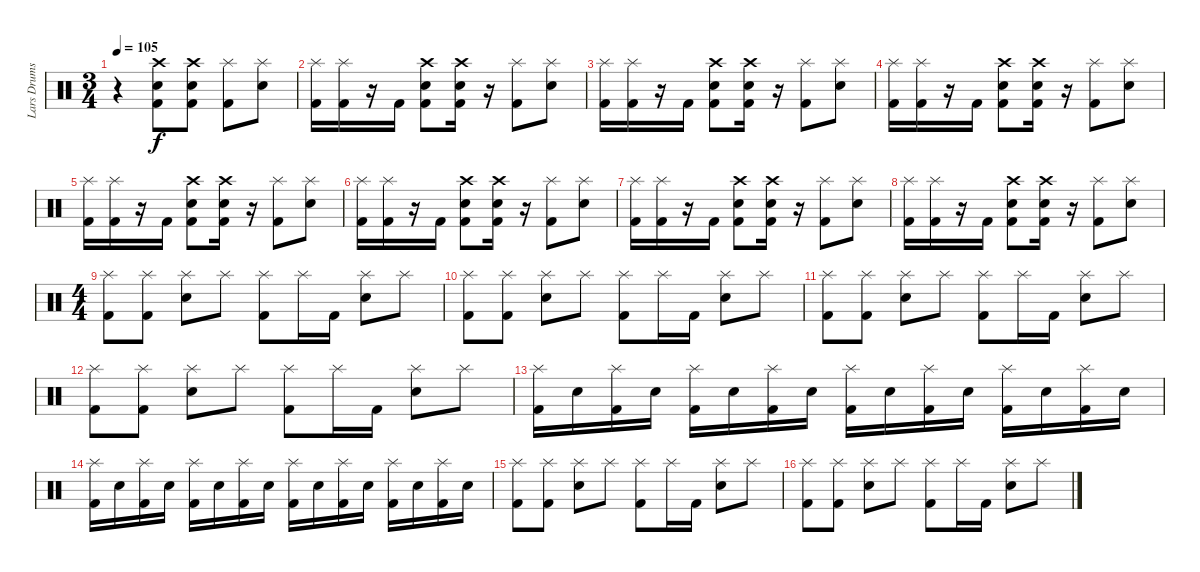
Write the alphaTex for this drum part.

\track ("Lars Drums" "Lars Drums") {instrument percussion}
\staff {score}
\articulation defaults
\ts (3 4)
\tempo 105
\clef neutral
\ks c
r.4{dy f} ("Crash high (hit)" "Snare (hit) 2" "Kick (hit) 2").8 ("Crash high (hit)" "Snare (hit) 2" "Kick (hit) 2").8 ("Splash (hit)" "Kick (hit) 2").8 ("Splash (hit)" "Snare (hit) 2").8 |
("Splash (hit)" "Kick (hit) 2").16 ("Splash (hit)" "Kick (hit) 2").16 r.16 "Kick (hit) 2".16 ("Crash high (hit)" "Snare (hit) 2" "Kick (hit) 2").8 ("Crash high (hit)" "Snare (hit) 2" "Kick (hit) 2").16 r.16 ("Splash (hit)" "Kick (hit) 2").8 ("Splash (hit)" "Snare (hit) 2").8 |
("Splash (hit)" "Kick (hit) 2").16 ("Splash (hit)" "Kick (hit) 2").16 r.16 "Kick (hit) 2".16 ("Crash high (hit)" "Snare (hit) 2" "Kick (hit) 2").8 ("Crash high (hit)" "Snare (hit) 2" "Kick (hit) 2").16 r.16 ("Splash (hit)" "Kick (hit) 2").8 ("Splash (hit)" "Snare (hit) 2").8 |
("Splash (hit)" "Kick (hit) 2").16 ("Splash (hit)" "Kick (hit) 2").16 r.16 "Kick (hit) 2".16 ("Crash high (hit)" "Snare (hit) 2" "Kick (hit) 2").8 ("Crash high (hit)" "Snare (hit) 2" "Kick (hit) 2").16 r.16 ("Splash (hit)" "Kick (hit) 2").8 ("Splash (hit)" "Snare (hit) 2").8 |
("Splash (hit)" "Kick (hit) 2").16 ("Splash (hit)" "Kick (hit) 2").16 r.16 "Kick (hit) 2".16 ("Crash high (hit)" "Snare (hit) 2" "Kick (hit) 2").8 ("Crash high (hit)" "Snare (hit) 2" "Kick (hit) 2").16 r.16 ("Splash (hit)" "Kick (hit) 2").8 ("Splash (hit)" "Snare (hit) 2").8 |
("Splash (hit)" "Kick (hit) 2").16 ("Splash (hit)" "Kick (hit) 2").16 r.16 "Kick (hit) 2".16 ("Crash high (hit)" "Snare (hit) 2" "Kick (hit) 2").8 ("Crash high (hit)" "Snare (hit) 2" "Kick (hit) 2").16 r.16 ("Splash (hit)" "Kick (hit) 2").8 ("Splash (hit)" "Snare (hit) 2").8 |
("Splash (hit)" "Kick (hit) 2").16 ("Splash (hit)" "Kick (hit) 2").16 r.16 "Kick (hit) 2".16 ("Crash high (hit)" "Snare (hit) 2" "Kick (hit) 2").8 ("Crash high (hit)" "Snare (hit) 2" "Kick (hit) 2").16 r.16 ("Splash (hit)" "Kick (hit) 2").8 ("Splash (hit)" "Snare (hit) 2").8 |
("Splash (hit)" "Kick (hit) 2").16 ("Splash (hit)" "Kick (hit) 2").16 r.16 "Kick (hit) 2".16 ("Crash high (hit)" "Snare (hit) 2" "Kick (hit) 2").8 ("Crash high (hit)" "Snare (hit) 2" "Kick (hit) 2").16 r.16 ("Splash (hit)" "Kick (hit) 2").8 ("Splash (hit)" "Snare (hit) 2").8 |
\ts (4 4)
("Splash (hit)" "Kick (hit) 2").8 ("Splash (hit)" "Kick (hit) 2").8 ("Splash (hit)" "Snare (hit) 2").8 "Splash (hit)".8 ("Splash (hit)" "Kick (hit) 2").8 "Splash (hit)".16 "Kick (hit) 2".16 ("Splash (hit)" "Snare (hit) 2").8 "Splash (hit)".8 |
("Splash (hit)" "Kick (hit) 2").8 ("Splash (hit)" "Kick (hit) 2").8 ("Splash (hit)" "Snare (hit) 2").8 "Splash (hit)".8 ("Splash (hit)" "Kick (hit) 2").8 "Splash (hit)".16 "Kick (hit) 2".16 ("Splash (hit)" "Snare (hit) 2").8 "Splash (hit)".8 |
("Splash (hit)" "Kick (hit) 2").8 ("Splash (hit)" "Kick (hit) 2").8 ("Splash (hit)" "Snare (hit) 2").8 "Splash (hit)".8 ("Splash (hit)" "Kick (hit) 2").8 "Splash (hit)".16 "Kick (hit) 2".16 ("Splash (hit)" "Snare (hit) 2").8 "Splash (hit)".8 |
("Splash (hit)" "Kick (hit) 2").8 ("Splash (hit)" "Kick (hit) 2").8 ("Splash (hit)" "Snare (hit) 2").8 "Splash (hit)".8 ("Splash (hit)" "Kick (hit) 2").8 "Splash (hit)".16 "Kick (hit) 2".16 ("Splash (hit)" "Snare (hit) 2").8 "Splash (hit)".8 |
("Splash (hit)" "Kick (hit) 2").16 "Snare (hit) 2".16 ("Splash (hit)" "Kick (hit) 2").16 "Snare (hit) 2".16 ("Splash (hit)" "Kick (hit) 2").16 "Snare (hit) 2".16 ("Splash (hit)" "Kick (hit) 2").16 "Snare (hit) 2".16 ("Splash (hit)" "Kick (hit) 2").16 "Snare (hit) 2".16 ("Splash (hit)" "Kick (hit) 2").16 "Snare (hit) 2".16 ("Splash (hit)" "Kick (hit) 2").16 "Snare (hit) 2".16 ("Splash (hit)" "Kick (hit) 2").16 "Snare (hit) 2".16 |
("Splash (hit)" "Kick (hit) 2").16 "Snare (hit) 2".16 ("Splash (hit)" "Kick (hit) 2").16 "Snare (hit) 2".16 ("Splash (hit)" "Kick (hit) 2").16 "Snare (hit) 2".16 ("Splash (hit)" "Kick (hit) 2").16 "Snare (hit) 2".16 ("Splash (hit)" "Kick (hit) 2").16 "Snare (hit) 2".16 ("Splash (hit)" "Kick (hit) 2").16 "Snare (hit) 2".16 ("Splash (hit)" "Kick (hit) 2").16 "Snare (hit) 2".16 ("Splash (hit)" "Kick (hit) 2").16 "Snare (hit) 2".16 |
("Splash (hit)" "Kick (hit) 2").8 ("Splash (hit)" "Kick (hit) 2").8 ("Splash (hit)" "Snare (hit) 2").8 "Splash (hit)".8 ("Splash (hit)" "Kick (hit) 2").8 "Splash (hit)".16 "Kick (hit) 2".16 ("Splash (hit)" "Snare (hit) 2").8 "Splash (hit)".8 |
("Splash (hit)" "Kick (hit) 2").8 ("Splash (hit)" "Kick (hit) 2").8 ("Splash (hit)" "Snare (hit) 2").8 "Splash (hit)".8 ("Splash (hit)" "Kick (hit) 2").8 "Splash (hit)".16 "Kick (hit) 2".16 ("Splash (hit)" "Snare (hit) 2").8 "Splash (hit)".8
